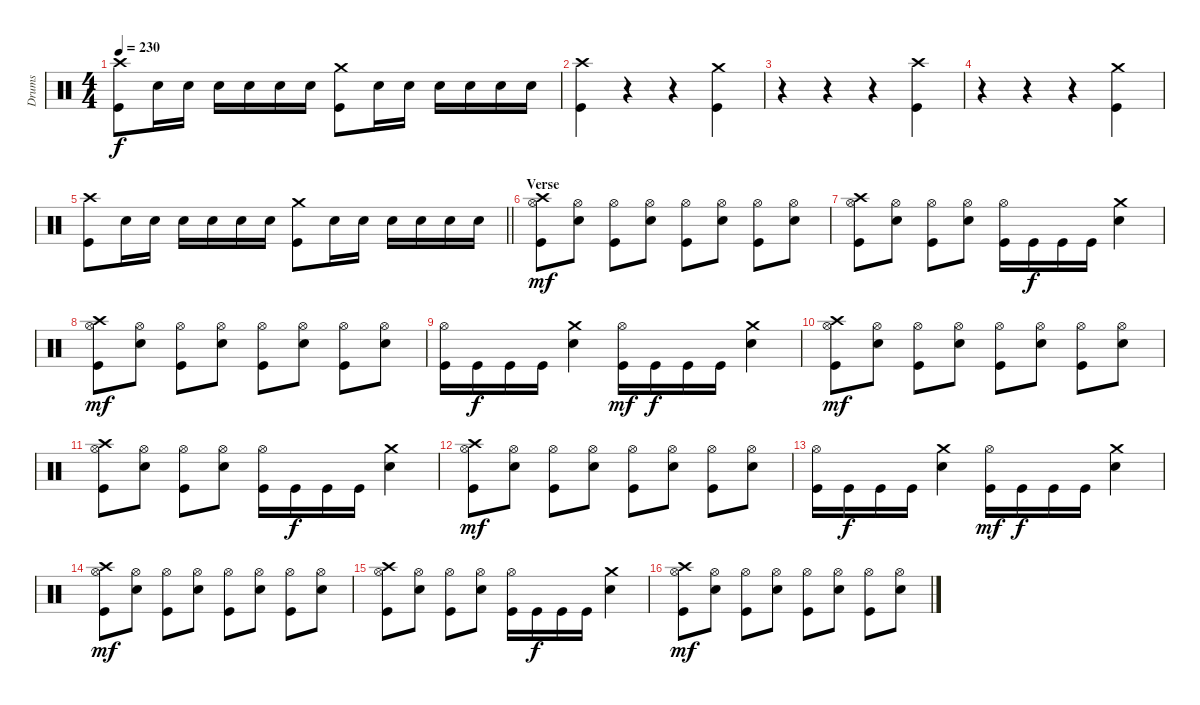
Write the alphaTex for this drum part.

\track ("Drums" "Drums") {instrument percussion}
\staff {score}
\articulation defaults
\ts (4 4)
\tempo 230
\clef neutral
\ks c
("Crash high (hit)" "Kick (hit)").8{dy f} "Electric Snare (hit)".16 "Electric Snare (hit)".16 "Electric Snare (hit)".16 "Electric Snare (hit)".16 "Electric Snare (hit)".16 "Electric Snare (hit)".16 ("Crash medium (hit)" "Kick (hit)").8 "Electric Snare (hit)".16 "Electric Snare (hit)".16 "Electric Snare (hit)".16 "Electric Snare (hit)".16 "Electric Snare (hit)".16 "Electric Snare (hit)".16 |
("Crash high (hit)" "Kick (hit)").4 r.4 r.4 ("Crash medium (hit)" "Kick (hit)").4 |
r.4 r.4 r.4 ("Crash high (hit)" "Kick (hit)").4 |
r.4 r.4 r.4 ("Crash medium (hit)" "Kick (hit)").4 |
\barLineRight lightlight
("Crash high (hit)" "Kick (hit)").8 "Electric Snare (hit)".16 "Electric Snare (hit)".16 "Electric Snare (hit)".16 "Electric Snare (hit)".16 "Electric Snare (hit)".16 "Electric Snare (hit)".16 ("Crash medium (hit)" "Kick (hit)").8 "Electric Snare (hit)".16 "Electric Snare (hit)".16 "Electric Snare (hit)".16 "Electric Snare (hit)".16 "Electric Snare (hit)".16 "Electric Snare (hit)".16 |
\section ("" "Verse")
("Crash high (hit)" "Hi-Hat (open)" "Kick (hit)").8{dy mf} ("Hi-Hat (open)" "Electric Snare (hit)").8 ("Hi-Hat (open)" "Kick (hit)").8 ("Hi-Hat (open)" "Electric Snare (hit)").8 ("Hi-Hat (open)" "Kick (hit)").8 ("Hi-Hat (open)" "Electric Snare (hit)").8 ("Hi-Hat (open)" "Kick (hit)").8 ("Hi-Hat (open)" "Electric Snare (hit)").8 |
("Crash high (hit)" "Hi-Hat (open)" "Kick (hit)").8 ("Hi-Hat (open)" "Electric Snare (hit)").8 ("Hi-Hat (open)" "Kick (hit)").8 ("Hi-Hat (open)" "Electric Snare (hit)").8 ("Hi-Hat (open)" "Kick (hit)").16 "Kick (hit)".16{dy f} "Kick (hit)".16 "Kick (hit)".16 ("Crash medium (hit)" "Electric Snare (hit)").4 |
("Crash high (hit)" "Hi-Hat (open)" "Kick (hit)").8{dy mf} ("Hi-Hat (open)" "Electric Snare (hit)").8 ("Hi-Hat (open)" "Kick (hit)").8 ("Hi-Hat (open)" "Electric Snare (hit)").8 ("Hi-Hat (open)" "Kick (hit)").8 ("Hi-Hat (open)" "Electric Snare (hit)").8 ("Hi-Hat (open)" "Kick (hit)").8 ("Hi-Hat (open)" "Electric Snare (hit)").8 |
("Hi-Hat (open)" "Kick (hit)").16 "Kick (hit)".16{dy f} "Kick (hit)".16 "Kick (hit)".16 ("Crash medium (hit)" "Electric Snare (hit)").4 ("Hi-Hat (open)" "Kick (hit)").16{dy mf} "Kick (hit)".16{dy f} "Kick (hit)".16 "Kick (hit)".16 ("Crash medium (hit)" "Electric Snare (hit)").4 |
("Crash high (hit)" "Hi-Hat (open)" "Kick (hit)").8{dy mf} ("Hi-Hat (open)" "Electric Snare (hit)").8 ("Hi-Hat (open)" "Kick (hit)").8 ("Hi-Hat (open)" "Electric Snare (hit)").8 ("Hi-Hat (open)" "Kick (hit)").8 ("Hi-Hat (open)" "Electric Snare (hit)").8 ("Hi-Hat (open)" "Kick (hit)").8 ("Hi-Hat (open)" "Electric Snare (hit)").8 |
("Crash high (hit)" "Hi-Hat (open)" "Kick (hit)").8 ("Hi-Hat (open)" "Electric Snare (hit)").8 ("Hi-Hat (open)" "Kick (hit)").8 ("Hi-Hat (open)" "Electric Snare (hit)").8 ("Hi-Hat (open)" "Kick (hit)").16 "Kick (hit)".16{dy f} "Kick (hit)".16 "Kick (hit)".16 ("Crash medium (hit)" "Electric Snare (hit)").4 |
("Crash high (hit)" "Hi-Hat (open)" "Kick (hit)").8{dy mf} ("Hi-Hat (open)" "Electric Snare (hit)").8 ("Hi-Hat (open)" "Kick (hit)").8 ("Hi-Hat (open)" "Electric Snare (hit)").8 ("Hi-Hat (open)" "Kick (hit)").8 ("Hi-Hat (open)" "Electric Snare (hit)").8 ("Hi-Hat (open)" "Kick (hit)").8 ("Hi-Hat (open)" "Electric Snare (hit)").8 |
("Hi-Hat (open)" "Kick (hit)").16 "Kick (hit)".16{dy f} "Kick (hit)".16 "Kick (hit)".16 ("Crash medium (hit)" "Electric Snare (hit)").4 ("Hi-Hat (open)" "Kick (hit)").16{dy mf} "Kick (hit)".16{dy f} "Kick (hit)".16 "Kick (hit)".16 ("Crash medium (hit)" "Electric Snare (hit)").4 |
("Crash high (hit)" "Hi-Hat (open)" "Kick (hit)").8{dy mf} ("Hi-Hat (open)" "Electric Snare (hit)").8 ("Hi-Hat (open)" "Kick (hit)").8 ("Hi-Hat (open)" "Electric Snare (hit)").8 ("Hi-Hat (open)" "Kick (hit)").8 ("Hi-Hat (open)" "Electric Snare (hit)").8 ("Hi-Hat (open)" "Kick (hit)").8 ("Hi-Hat (open)" "Electric Snare (hit)").8 |
("Crash high (hit)" "Hi-Hat (open)" "Kick (hit)").8 ("Hi-Hat (open)" "Electric Snare (hit)").8 ("Hi-Hat (open)" "Kick (hit)").8 ("Hi-Hat (open)" "Electric Snare (hit)").8 ("Hi-Hat (open)" "Kick (hit)").16 "Kick (hit)".16{dy f} "Kick (hit)".16 "Kick (hit)".16 ("Crash medium (hit)" "Electric Snare (hit)").4 |
("Crash high (hit)" "Hi-Hat (open)" "Kick (hit)").8{dy mf} ("Hi-Hat (open)" "Electric Snare (hit)").8 ("Hi-Hat (open)" "Kick (hit)").8 ("Hi-Hat (open)" "Electric Snare (hit)").8 ("Hi-Hat (open)" "Kick (hit)").8 ("Hi-Hat (open)" "Electric Snare (hit)").8 ("Hi-Hat (open)" "Kick (hit)").8 ("Hi-Hat (open)" "Electric Snare (hit)").8
